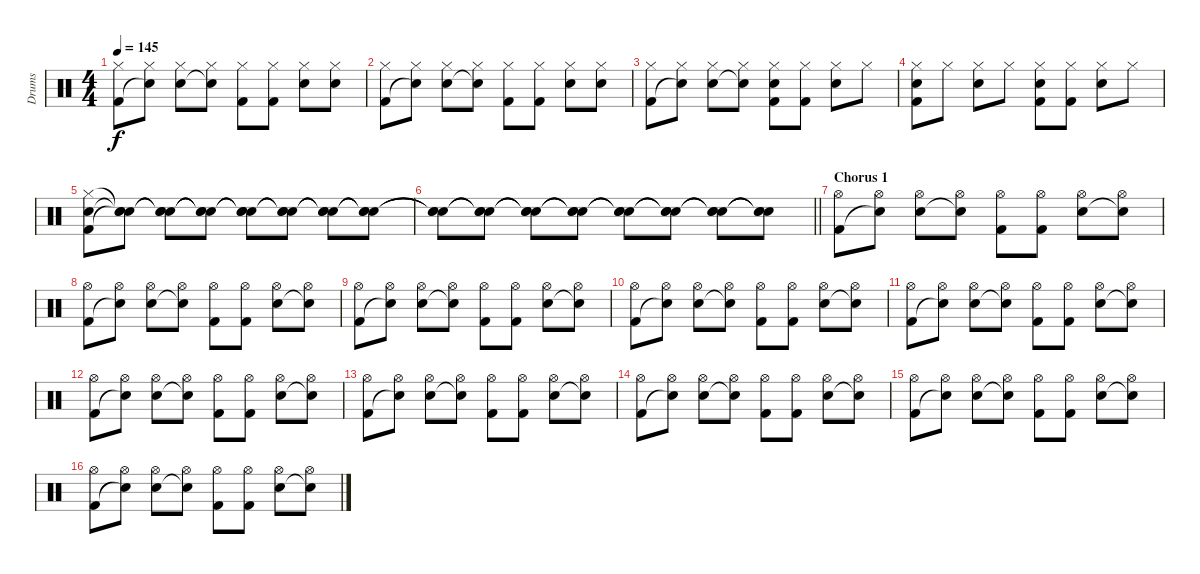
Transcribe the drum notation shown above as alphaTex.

\track ("Drums" "Drums") {instrument percussion}
\staff {score}
\articulation defaults
\ts (4 4)
\tempo 145
\clef neutral
\ks c
("Hi-Hat (closed)" "Kick (hit) 2").8{dy f} ("Hi-Hat (closed)" "Snare (hit)"{t}).8 ("Hi-Hat (closed)" "Electric Snare (hit)").8 ("Hi-Hat (closed)" "Snare (hit)"{t}).8 ("Hi-Hat (closed)" "Kick (hit) 2").8 ("Hi-Hat (closed)" "Kick (hit) 2").8 ("Hi-Hat (closed)" "Electric Snare (hit)").8 ("Hi-Hat (closed)" "Electric Snare (hit)").8 |
("Hi-Hat (closed)" "Kick (hit) 2").8 ("Hi-Hat (closed)" "Snare (hit)"{t}).8 ("Hi-Hat (closed)" "Electric Snare (hit)").8 ("Hi-Hat (closed)" "Snare (hit)"{t}).8 ("Hi-Hat (closed)" "Kick (hit) 2").8 ("Hi-Hat (closed)" "Kick (hit) 2").8 ("Hi-Hat (closed)" "Electric Snare (hit)").8 ("Hi-Hat (closed)" "Electric Snare (hit)").8 |
("Hi-Hat (closed)" "Kick (hit) 2").8 ("Hi-Hat (closed)" "Snare (hit)"{t}).8 ("Hi-Hat (closed)" "Electric Snare (hit)").8 ("Hi-Hat (closed)" "Snare (hit)"{t}).8 ("Hi-Hat (closed)" "Electric Snare (hit)" "Kick (hit) 2").8 ("Hi-Hat (closed)" "Kick (hit) 2").8 ("Hi-Hat (closed)" "Electric Snare (hit)").8 "Hi-Hat (closed)".8 |
("Hi-Hat (closed)" "Electric Snare (hit)" "Kick (hit) 2").8 "Hi-Hat (closed)".8 ("Hi-Hat (closed)" "Electric Snare (hit)").8 "Hi-Hat (closed)".8 ("Hi-Hat (closed)" "Electric Snare (hit)" "Kick (hit) 2").8 ("Hi-Hat (closed)" "Kick (hit) 2").8 ("Hi-Hat (closed)" "Electric Snare (hit)").8 "Hi-Hat (closed)".8 |
("Hi-Hat (closed)" "Electric Snare (hit)" "Kick (hit) 2").8 ("Snare (hit)"{t} "Snare (hit)"{t} "Snare (hit)"{t}).8 ("Snare (hit)"{t} "Snare (hit)"{t} "Snare (hit)"{t}).8 ("Snare (hit)"{t} "Snare (hit)"{t} "Snare (hit)"{t}).8 ("Snare (hit)"{t} "Snare (hit)"{t} "Snare (hit)"{t}).8 ("Snare (hit)"{t} "Snare (hit)"{t} "Snare (hit)"{t}).8 ("Snare (hit)"{t} "Snare (hit)"{t} "Snare (hit)"{t}).8 ("Snare (hit)"{t} "Snare (hit)"{t} "Snare (hit)"{t}).8 |
\barLineRight lightlight
("Snare (hit)"{t} "Snare (hit)"{t} "Snare (hit)"{t}).8 ("Snare (hit)"{t} "Snare (hit)"{t} "Snare (hit)"{t}).8 ("Snare (hit)"{t} "Snare (hit)"{t} "Snare (hit)"{t}).8 ("Snare (hit)"{t} "Snare (hit)"{t} "Snare (hit)"{t}).8 ("Snare (hit)"{t} "Snare (hit)"{t} "Snare (hit)"{t}).8 ("Snare (hit)"{t} "Snare (hit)"{t} "Snare (hit)"{t}).8 ("Snare (hit)"{t} "Snare (hit)"{t} "Snare (hit)"{t}).8 ("Snare (hit)"{t} "Snare (hit)"{t} "Snare (hit)"{t}).8 |
\section ("" "Chorus 1")
("Hi-Hat (open)" "Kick (hit) 2").8 ("Hi-Hat (open)" "Snare (hit)"{t}).8 ("Hi-Hat (open)" "Electric Snare (hit)").8 ("Hi-Hat (open)" "Snare (hit)"{t}).8 ("Hi-Hat (open)" "Kick (hit) 2").8 ("Hi-Hat (open)" "Kick (hit) 2").8 ("Hi-Hat (open)" "Electric Snare (hit)").8 ("Hi-Hat (open)" "Snare (hit)"{t}).8 |
("Hi-Hat (open)" "Kick (hit) 2").8 ("Hi-Hat (open)" "Snare (hit)"{t}).8 ("Hi-Hat (open)" "Electric Snare (hit)").8 ("Hi-Hat (open)" "Snare (hit)"{t}).8 ("Hi-Hat (open)" "Kick (hit) 2").8 ("Hi-Hat (open)" "Kick (hit) 2").8 ("Hi-Hat (open)" "Electric Snare (hit)").8 ("Hi-Hat (open)" "Snare (hit)"{t}).8 |
("Hi-Hat (open)" "Kick (hit) 2").8 ("Hi-Hat (open)" "Snare (hit)"{t}).8 ("Hi-Hat (open)" "Electric Snare (hit)").8 ("Hi-Hat (open)" "Snare (hit)"{t}).8 ("Hi-Hat (open)" "Kick (hit) 2").8 ("Hi-Hat (open)" "Kick (hit) 2").8 ("Hi-Hat (open)" "Electric Snare (hit)").8 ("Hi-Hat (open)" "Snare (hit)"{t}).8 |
("Hi-Hat (open)" "Kick (hit) 2").8 ("Hi-Hat (open)" "Snare (hit)"{t}).8 ("Hi-Hat (open)" "Electric Snare (hit)").8 ("Hi-Hat (open)" "Snare (hit)"{t}).8 ("Hi-Hat (open)" "Kick (hit) 2").8 ("Hi-Hat (open)" "Kick (hit) 2").8 ("Hi-Hat (open)" "Electric Snare (hit)").8 ("Hi-Hat (open)" "Snare (hit)"{t}).8 |
("Hi-Hat (open)" "Kick (hit) 2").8 ("Hi-Hat (open)" "Snare (hit)"{t}).8 ("Hi-Hat (open)" "Electric Snare (hit)").8 ("Hi-Hat (open)" "Snare (hit)"{t}).8 ("Hi-Hat (open)" "Kick (hit) 2").8 ("Hi-Hat (open)" "Kick (hit) 2").8 ("Hi-Hat (open)" "Electric Snare (hit)").8 ("Hi-Hat (open)" "Snare (hit)"{t}).8 |
("Hi-Hat (open)" "Kick (hit) 2").8 ("Hi-Hat (open)" "Snare (hit)"{t}).8 ("Hi-Hat (open)" "Electric Snare (hit)").8 ("Hi-Hat (open)" "Snare (hit)"{t}).8 ("Hi-Hat (open)" "Kick (hit) 2").8 ("Hi-Hat (open)" "Kick (hit) 2").8 ("Hi-Hat (open)" "Electric Snare (hit)").8 ("Hi-Hat (open)" "Snare (hit)"{t}).8 |
("Hi-Hat (open)" "Kick (hit) 2").8 ("Hi-Hat (open)" "Snare (hit)"{t}).8 ("Hi-Hat (open)" "Electric Snare (hit)").8 ("Hi-Hat (open)" "Snare (hit)"{t}).8 ("Hi-Hat (open)" "Kick (hit) 2").8 ("Hi-Hat (open)" "Kick (hit) 2").8 ("Hi-Hat (open)" "Electric Snare (hit)").8 ("Hi-Hat (open)" "Snare (hit)"{t}).8 |
("Hi-Hat (open)" "Kick (hit) 2").8 ("Hi-Hat (open)" "Snare (hit)"{t}).8 ("Hi-Hat (open)" "Electric Snare (hit)").8 ("Hi-Hat (open)" "Snare (hit)"{t}).8 ("Hi-Hat (open)" "Kick (hit) 2").8 ("Hi-Hat (open)" "Kick (hit) 2").8 ("Hi-Hat (open)" "Electric Snare (hit)").8 ("Hi-Hat (open)" "Snare (hit)"{t}).8 |
("Hi-Hat (open)" "Kick (hit) 2").8 ("Hi-Hat (open)" "Snare (hit)"{t}).8 ("Hi-Hat (open)" "Electric Snare (hit)").8 ("Hi-Hat (open)" "Snare (hit)"{t}).8 ("Hi-Hat (open)" "Kick (hit) 2").8 ("Hi-Hat (open)" "Kick (hit) 2").8 ("Hi-Hat (open)" "Electric Snare (hit)").8 ("Hi-Hat (open)" "Snare (hit)"{t}).8 |
("Hi-Hat (open)" "Kick (hit) 2").8 ("Hi-Hat (open)" "Snare (hit)"{t}).8 ("Hi-Hat (open)" "Electric Snare (hit)").8 ("Hi-Hat (open)" "Snare (hit)"{t}).8 ("Hi-Hat (open)" "Kick (hit) 2").8 ("Hi-Hat (open)" "Kick (hit) 2").8 ("Hi-Hat (open)" "Electric Snare (hit)").8 ("Hi-Hat (open)" "Snare (hit)"{t}).8
